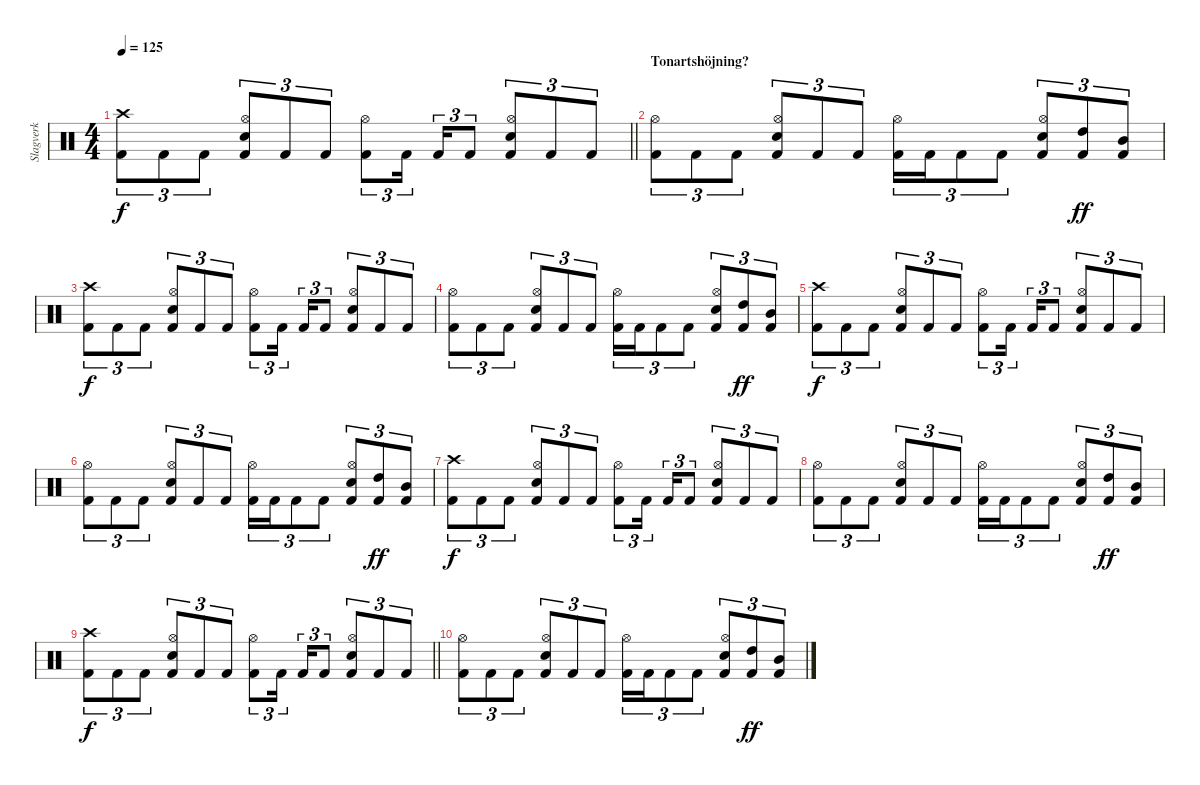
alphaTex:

\track ("Slagverk" "Slagverk") {instrument percussion}
\staff {score}
\articulation defaults
\ts (4 4)
\tempo 125
\clef neutral
\barLineRight lightlight
\ks c
("Crash high (hit)" "Kick (hit) 2").8{tu (3 2) dy f} "Kick (hit) 2".8{tu (3 2)} "Kick (hit) 2".8{tu (3 2)} ("Hi-Hat (open)" "Electric Snare (hit)" "Kick (hit) 2").8{tu (3 2)} "Kick (hit) 2".8{tu (3 2)} "Kick (hit) 2".8{tu (3 2)} ("Hi-Hat (open)" "Kick (hit) 2").8{tu (3 2)} "Kick (hit) 2".16{tu (3 2) beam splitsecondary} "Kick (hit) 2".16{tu (3 2)} "Kick (hit) 2".8{tu (3 2)} ("Hi-Hat (open)" "Electric Snare (hit)" "Kick (hit) 2").8{tu (3 2)} "Kick (hit) 2".8{tu (3 2)} "Kick (hit) 2".8{tu (3 2)} |
\section ("" "Tonartshöjning?")
("Hi-Hat (open)" "Kick (hit) 2").8{tu (3 2)} "Kick (hit) 2".8{tu (3 2)} "Kick (hit) 2".8{tu (3 2)} ("Hi-Hat (open)" "Electric Snare (hit)" "Kick (hit) 2").8{tu (3 2)} "Kick (hit) 2".8{tu (3 2)} "Kick (hit) 2".8{tu (3 2)} ("Hi-Hat (open)" "Kick (hit) 2").16{tu (3 2)} "Kick (hit) 2".16{tu (3 2)} "Kick (hit) 2".8{tu (3 2)} "Kick (hit) 2".8{tu (3 2)} ("Hi-Hat (open)" "Electric Snare (hit)" "Kick (hit) 2").8{tu (3 2)} ("High Tom (hit)" "Kick (hit) 2").8{tu (3 2) dy ff} ("Mid Tom (hit)" "Kick (hit) 2").8{tu (3 2)} |
("Crash high (hit)" "Kick (hit) 2").8{tu (3 2) dy f} "Kick (hit) 2".8{tu (3 2)} "Kick (hit) 2".8{tu (3 2)} ("Hi-Hat (open)" "Electric Snare (hit)" "Kick (hit) 2").8{tu (3 2)} "Kick (hit) 2".8{tu (3 2)} "Kick (hit) 2".8{tu (3 2)} ("Hi-Hat (open)" "Kick (hit) 2").8{tu (3 2)} "Kick (hit) 2".16{tu (3 2) beam splitsecondary} "Kick (hit) 2".16{tu (3 2)} "Kick (hit) 2".8{tu (3 2)} ("Hi-Hat (open)" "Electric Snare (hit)" "Kick (hit) 2").8{tu (3 2)} "Kick (hit) 2".8{tu (3 2)} "Kick (hit) 2".8{tu (3 2)} |
("Hi-Hat (open)" "Kick (hit) 2").8{tu (3 2)} "Kick (hit) 2".8{tu (3 2)} "Kick (hit) 2".8{tu (3 2)} ("Hi-Hat (open)" "Electric Snare (hit)" "Kick (hit) 2").8{tu (3 2)} "Kick (hit) 2".8{tu (3 2)} "Kick (hit) 2".8{tu (3 2)} ("Hi-Hat (open)" "Kick (hit) 2").16{tu (3 2)} "Kick (hit) 2".16{tu (3 2)} "Kick (hit) 2".8{tu (3 2)} "Kick (hit) 2".8{tu (3 2)} ("Hi-Hat (open)" "Electric Snare (hit)" "Kick (hit) 2").8{tu (3 2)} ("High Tom (hit)" "Kick (hit) 2").8{tu (3 2) dy ff} ("Mid Tom (hit)" "Kick (hit) 2").8{tu (3 2)} |
("Crash high (hit)" "Kick (hit) 2").8{tu (3 2) dy f} "Kick (hit) 2".8{tu (3 2)} "Kick (hit) 2".8{tu (3 2)} ("Hi-Hat (open)" "Electric Snare (hit)" "Kick (hit) 2").8{tu (3 2)} "Kick (hit) 2".8{tu (3 2)} "Kick (hit) 2".8{tu (3 2)} ("Hi-Hat (open)" "Kick (hit) 2").8{tu (3 2)} "Kick (hit) 2".16{tu (3 2) beam splitsecondary} "Kick (hit) 2".16{tu (3 2)} "Kick (hit) 2".8{tu (3 2)} ("Hi-Hat (open)" "Electric Snare (hit)" "Kick (hit) 2").8{tu (3 2)} "Kick (hit) 2".8{tu (3 2)} "Kick (hit) 2".8{tu (3 2)} |
("Hi-Hat (open)" "Kick (hit) 2").8{tu (3 2)} "Kick (hit) 2".8{tu (3 2)} "Kick (hit) 2".8{tu (3 2)} ("Hi-Hat (open)" "Electric Snare (hit)" "Kick (hit) 2").8{tu (3 2)} "Kick (hit) 2".8{tu (3 2)} "Kick (hit) 2".8{tu (3 2)} ("Hi-Hat (open)" "Kick (hit) 2").16{tu (3 2)} "Kick (hit) 2".16{tu (3 2)} "Kick (hit) 2".8{tu (3 2)} "Kick (hit) 2".8{tu (3 2)} ("Hi-Hat (open)" "Electric Snare (hit)" "Kick (hit) 2").8{tu (3 2)} ("High Tom (hit)" "Kick (hit) 2").8{tu (3 2) dy ff} ("Mid Tom (hit)" "Kick (hit) 2").8{tu (3 2)} |
("Crash high (hit)" "Kick (hit) 2").8{tu (3 2) dy f} "Kick (hit) 2".8{tu (3 2)} "Kick (hit) 2".8{tu (3 2)} ("Hi-Hat (open)" "Electric Snare (hit)" "Kick (hit) 2").8{tu (3 2)} "Kick (hit) 2".8{tu (3 2)} "Kick (hit) 2".8{tu (3 2)} ("Hi-Hat (open)" "Kick (hit) 2").8{tu (3 2)} "Kick (hit) 2".16{tu (3 2) beam splitsecondary} "Kick (hit) 2".16{tu (3 2)} "Kick (hit) 2".8{tu (3 2)} ("Hi-Hat (open)" "Electric Snare (hit)" "Kick (hit) 2").8{tu (3 2)} "Kick (hit) 2".8{tu (3 2)} "Kick (hit) 2".8{tu (3 2)} |
("Hi-Hat (open)" "Kick (hit) 2").8{tu (3 2)} "Kick (hit) 2".8{tu (3 2)} "Kick (hit) 2".8{tu (3 2)} ("Hi-Hat (open)" "Electric Snare (hit)" "Kick (hit) 2").8{tu (3 2)} "Kick (hit) 2".8{tu (3 2)} "Kick (hit) 2".8{tu (3 2)} ("Hi-Hat (open)" "Kick (hit) 2").16{tu (3 2)} "Kick (hit) 2".16{tu (3 2)} "Kick (hit) 2".8{tu (3 2)} "Kick (hit) 2".8{tu (3 2)} ("Hi-Hat (open)" "Electric Snare (hit)" "Kick (hit) 2").8{tu (3 2)} ("High Tom (hit)" "Kick (hit) 2").8{tu (3 2) dy ff} ("Mid Tom (hit)" "Kick (hit) 2").8{tu (3 2)} |
\barLineRight lightlight
("Crash high (hit)" "Kick (hit) 2").8{tu (3 2) dy f} "Kick (hit) 2".8{tu (3 2)} "Kick (hit) 2".8{tu (3 2)} ("Hi-Hat (open)" "Electric Snare (hit)" "Kick (hit) 2").8{tu (3 2)} "Kick (hit) 2".8{tu (3 2)} "Kick (hit) 2".8{tu (3 2)} ("Hi-Hat (open)" "Kick (hit) 2").8{tu (3 2)} "Kick (hit) 2".16{tu (3 2) beam splitsecondary} "Kick (hit) 2".16{tu (3 2)} "Kick (hit) 2".8{tu (3 2)} ("Hi-Hat (open)" "Electric Snare (hit)" "Kick (hit) 2").8{tu (3 2)} "Kick (hit) 2".8{tu (3 2)} "Kick (hit) 2".8{tu (3 2)} |
("Hi-Hat (open)" "Kick (hit) 2").8{tu (3 2)} "Kick (hit) 2".8{tu (3 2)} "Kick (hit) 2".8{tu (3 2)} ("Hi-Hat (open)" "Electric Snare (hit)" "Kick (hit) 2").8{tu (3 2)} "Kick (hit) 2".8{tu (3 2)} "Kick (hit) 2".8{tu (3 2)} ("Hi-Hat (open)" "Kick (hit) 2").16{tu (3 2)} "Kick (hit) 2".16{tu (3 2)} "Kick (hit) 2".8{tu (3 2)} "Kick (hit) 2".8{tu (3 2)} ("Hi-Hat (open)" "Electric Snare (hit)" "Kick (hit) 2").8{tu (3 2)} ("High Tom (hit)" "Kick (hit) 2").8{tu (3 2) dy ff} ("Mid Tom (hit)" "Kick (hit) 2").8{tu (3 2)}
